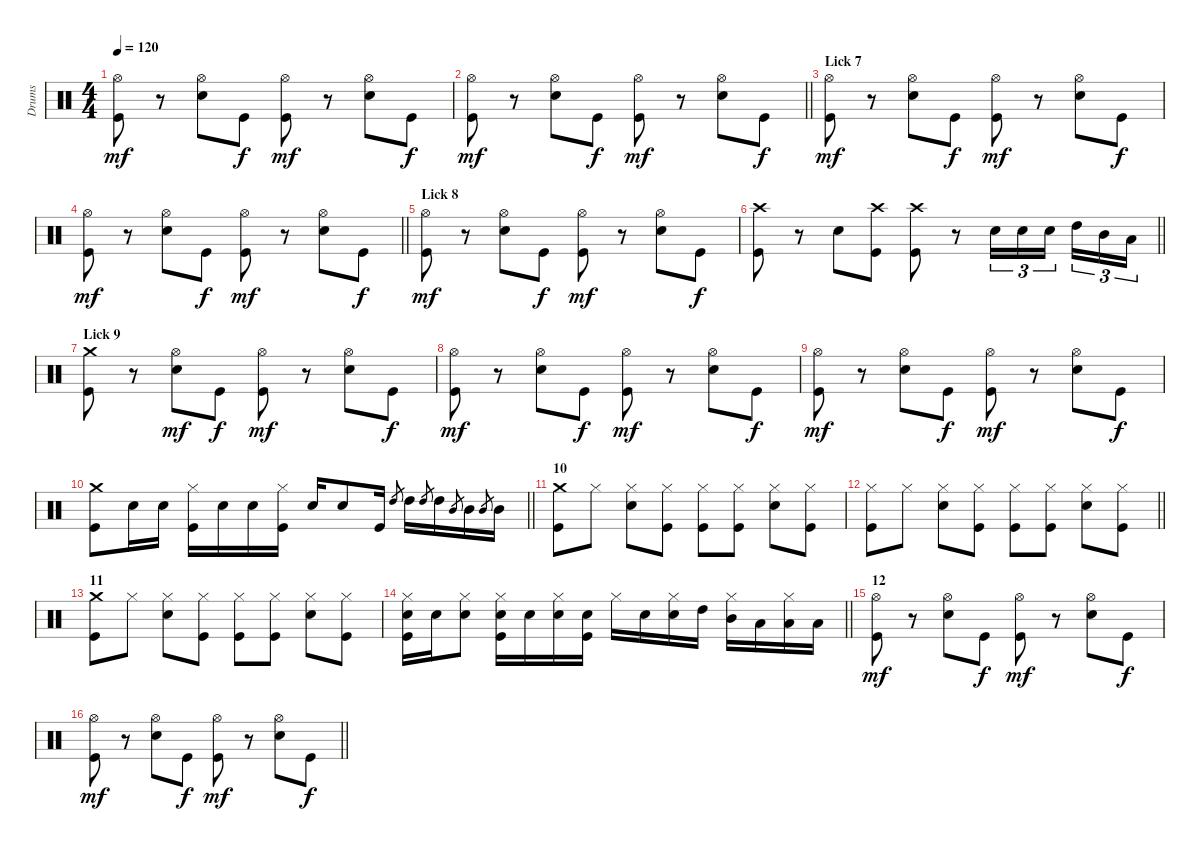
\track ("Drums" "Drums") {instrument percussion}
\staff {score}
\articulation defaults
\ts (4 4)
\tempo 120
\clef neutral
\ks c
("Hi-Hat (open)" "Kick (hit)").8{dy mf} r.8 ("Hi-Hat (open)" "Electric Snare (hit)").8 "Kick (hit)".8{dy f} ("Hi-Hat (open)" "Kick (hit)").8{dy mf} r.8 ("Hi-Hat (open)" "Electric Snare (hit)").8 "Kick (hit)".8{dy f} |
\barLineRight lightlight
("Hi-Hat (open)" "Kick (hit)").8{dy mf} r.8 ("Hi-Hat (open)" "Electric Snare (hit)").8 "Kick (hit)".8{dy f} ("Hi-Hat (open)" "Kick (hit)").8{dy mf} r.8 ("Hi-Hat (open)" "Electric Snare (hit)").8 "Kick (hit)".8{dy f} |
\section ("" "Lick 7")
("Hi-Hat (open)" "Kick (hit)").8{dy mf} r.8 ("Hi-Hat (open)" "Electric Snare (hit)").8 "Kick (hit)".8{dy f} ("Hi-Hat (open)" "Kick (hit)").8{dy mf} r.8 ("Hi-Hat (open)" "Electric Snare (hit)").8 "Kick (hit)".8{dy f} |
\barLineRight lightlight
("Hi-Hat (open)" "Kick (hit)").8{dy mf} r.8 ("Hi-Hat (open)" "Electric Snare (hit)").8 "Kick (hit)".8{dy f} ("Hi-Hat (open)" "Kick (hit)").8{dy mf} r.8 ("Hi-Hat (open)" "Electric Snare (hit)").8 "Kick (hit)".8{dy f} |
\section ("" "Lick 8")
("Hi-Hat (open)" "Kick (hit)").8{dy mf} r.8 ("Hi-Hat (open)" "Electric Snare (hit)").8 "Kick (hit)".8{dy f} ("Hi-Hat (open)" "Kick (hit)").8{dy mf} r.8 ("Hi-Hat (open)" "Electric Snare (hit)").8 "Kick (hit)".8{dy f} |
\barLineRight lightlight
("Crash high (hit)" "Kick (hit)").8 r.8 "Electric Snare (hit)".8 ("Crash high (hit)" "Kick (hit)").8 ("Crash high (hit)" "Kick (hit)").8 r.8 "Electric Snare (hit)".16{tu (3 2)} "Electric Snare (hit)".16{tu (3 2)} "Electric Snare (hit)".16{tu (3 2)} "High Tom (hit)".16{tu (3 2)} "Mid Tom (hit)".16{tu (3 2)} "Low Tom (hit)".16{tu (3 2)} |
\section ("" "Lick 9")
("Crash medium (hit)" "Kick (hit)").8 r.8 ("Hi-Hat (open)" "Electric Snare (hit)").8{dy mf} "Kick (hit)".8{dy f} ("Hi-Hat (open)" "Kick (hit)").8{dy mf} r.8 ("Hi-Hat (open)" "Electric Snare (hit)").8 "Kick (hit)".8{dy f} |
("Hi-Hat (open)" "Kick (hit)").8{dy mf} r.8 ("Hi-Hat (open)" "Electric Snare (hit)").8 "Kick (hit)".8{dy f} ("Hi-Hat (open)" "Kick (hit)").8{dy mf} r.8 ("Hi-Hat (open)" "Electric Snare (hit)").8 "Kick (hit)".8{dy f} |
("Hi-Hat (open)" "Kick (hit)").8{dy mf} r.8 ("Hi-Hat (open)" "Electric Snare (hit)").8 "Kick (hit)".8{dy f} ("Hi-Hat (open)" "Kick (hit)").8{dy mf} r.8 ("Hi-Hat (open)" "Electric Snare (hit)").8 "Kick (hit)".8{dy f} |
\barLineRight lightlight
("Crash medium (hit)" "Kick (hit)").8 "Electric Snare (hit)".16 "Electric Snare (hit)".16 ("Hi-Hat (closed)" "Kick (hit)").16 "Electric Snare (hit)".16 "Electric Snare (hit)".16 ("Hi-Hat (closed)" "Kick (hit)").16 "Electric Snare (hit)".16 "Electric Snare (hit)".8 "Kick (hit)".16 "High Tom (hit)".8{gr} "High Tom (hit)".16 "High Tom (hit)".8{gr} "High Tom (hit)".16 "Mid Tom (hit)".8{gr} "Mid Tom (hit)".16 "Mid Tom (hit)".8{gr} "Mid Tom (hit)".16 |
\section ("" "10")
("Crash medium (hit)" "Kick (hit)").8 "Hi-Hat (closed)".8 ("Hi-Hat (closed)" "Electric Snare (hit)").8 ("Hi-Hat (closed)" "Kick (hit)").8 ("Hi-Hat (closed)" "Kick (hit)").8 ("Hi-Hat (closed)" "Kick (hit)").8 ("Hi-Hat (closed)" "Electric Snare (hit)").8 ("Hi-Hat (closed)" "Kick (hit)").8 |
\barLineRight lightlight
("Hi-Hat (closed)" "Kick (hit)").8 "Hi-Hat (closed)".8 ("Hi-Hat (closed)" "Electric Snare (hit)").8 ("Hi-Hat (closed)" "Kick (hit)").8 ("Hi-Hat (closed)" "Kick (hit)").8 ("Hi-Hat (closed)" "Kick (hit)").8 ("Hi-Hat (closed)" "Electric Snare (hit)").8 ("Hi-Hat (closed)" "Kick (hit)").8 |
\section ("" "11")
("Crash medium (hit)" "Kick (hit)").8 "Hi-Hat (closed)".8 ("Hi-Hat (closed)" "Electric Snare (hit)").8 ("Hi-Hat (closed)" "Kick (hit)").8 ("Hi-Hat (closed)" "Kick (hit)").8 ("Hi-Hat (closed)" "Kick (hit)").8 ("Hi-Hat (closed)" "Electric Snare (hit)").8 ("Hi-Hat (closed)" "Kick (hit)").8 |
\barLineRight lightlight
("Hi-Hat (closed)" "Electric Snare (hit)" "Kick (hit)").16 "Electric Snare (hit)".16 ("Hi-Hat (closed)" "Electric Snare (hit)").8 ("Hi-Hat (closed)" "Electric Snare (hit)" "Kick (hit)").16 "Electric Snare (hit)".16 ("Hi-Hat (closed)" "Electric Snare (hit)").16 ("Electric Snare (hit)" "Kick (hit)").16 "Hi-Hat (closed)".16 "Electric Snare (hit)".16 ("Hi-Hat (closed)" "Electric Snare (hit)").16 "High Tom (hit)".16 ("Hi-Hat (closed)" "Mid Tom (hit)").16 "Low Tom (hit)".16 ("Hi-Hat (closed)" "Low Tom (hit)").16 "Low Tom (hit)".16 |
\section ("" "12")
("Hi-Hat (open)" "Kick (hit)").8{dy mf} r.8 ("Hi-Hat (open)" "Electric Snare (hit)").8 "Kick (hit)".8{dy f} ("Hi-Hat (open)" "Kick (hit)").8{dy mf} r.8 ("Hi-Hat (open)" "Electric Snare (hit)").8 "Kick (hit)".8{dy f} |
\barLineRight lightlight
("Hi-Hat (open)" "Kick (hit)").8{dy mf} r.8 ("Hi-Hat (open)" "Electric Snare (hit)").8 "Kick (hit)".8{dy f} ("Hi-Hat (open)" "Kick (hit)").8{dy mf} r.8 ("Hi-Hat (open)" "Electric Snare (hit)").8 "Kick (hit)".8{dy f}
